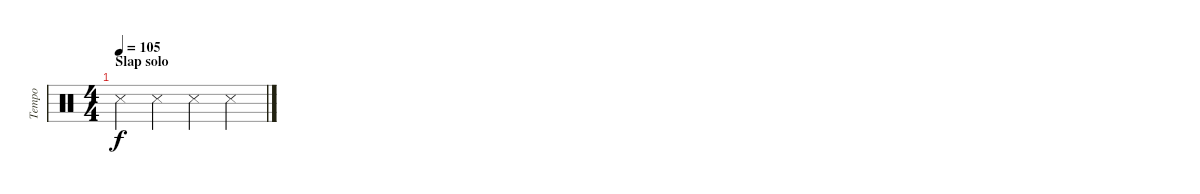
\track ("Tempo" "Tempo") {instrument percussion}
\staff {score}
\articulation defaults
\ts (4 4)
\section ("" "Slap solo")
\tempo 105
\clef neutral
\ks c "Snare (side stick) 3".4{dy f} "Snare (side stick) 3".4 "Snare (side stick) 3".4 "Snare (side stick) 3".4
